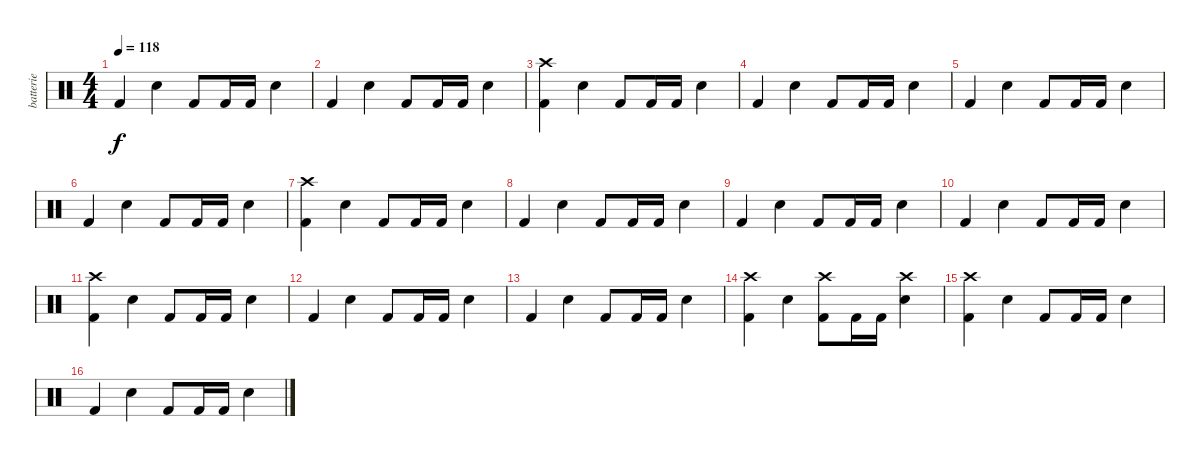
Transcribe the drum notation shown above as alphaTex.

\track ("batterie" "batterie") {instrument percussion}
\staff {score}
\articulation defaults
\ts (4 4)
\tempo 118
\clef neutral
\ks c "Kick (hit) 2".4{dy f} "Electric Snare (hit)".4 "Kick (hit) 2".8 "Kick (hit) 2".16 "Kick (hit) 2".16 "Electric Snare (hit)".4
|
"Kick (hit) 2".4 "Electric Snare (hit)".4 "Kick (hit) 2".8 "Kick (hit) 2".16 "Kick (hit) 2".16 "Electric Snare (hit)".4 |
("Crash high (hit)" "Kick (hit) 2").4 "Electric Snare (hit)".4 "Kick (hit) 2".8 "Kick (hit) 2".16 "Kick (hit) 2".16 "Electric Snare (hit)".4 |
"Kick (hit) 2".4 "Electric Snare (hit)".4 "Kick (hit) 2".8 "Kick (hit) 2".16 "Kick (hit) 2".16 "Electric Snare (hit)".4 |
"Kick (hit) 2".4 "Electric Snare (hit)".4 "Kick (hit) 2".8 "Kick (hit) 2".16 "Kick (hit) 2".16 "Electric Snare (hit)".4 |
"Kick (hit) 2".4 "Electric Snare (hit)".4 "Kick (hit) 2".8 "Kick (hit) 2".16 "Kick (hit) 2".16 "Electric Snare (hit)".4 |
("Crash high (hit)" "Kick (hit) 2").4 "Electric Snare (hit)".4 "Kick (hit) 2".8 "Kick (hit) 2".16 "Kick (hit) 2".16 "Electric Snare (hit)".4 |
"Kick (hit) 2".4 "Electric Snare (hit)".4 "Kick (hit) 2".8 "Kick (hit) 2".16 "Kick (hit) 2".16 "Electric Snare (hit)".4 |
"Kick (hit) 2".4 "Electric Snare (hit)".4 "Kick (hit) 2".8 "Kick (hit) 2".16 "Kick (hit) 2".16 "Electric Snare (hit)".4 |
"Kick (hit) 2".4 "Electric Snare (hit)".4 "Kick (hit) 2".8 "Kick (hit) 2".16 "Kick (hit) 2".16 "Electric Snare (hit)".4 |
("Crash high (hit)" "Kick (hit) 2").4 "Electric Snare (hit)".4 "Kick (hit) 2".8 "Kick (hit) 2".16 "Kick (hit) 2".16 "Electric Snare (hit)".4 |
"Kick (hit) 2".4 "Electric Snare (hit)".4 "Kick (hit) 2".8 "Kick (hit) 2".16 "Kick (hit) 2".16 "Electric Snare (hit)".4 |
"Kick (hit) 2".4 "Electric Snare (hit)".4 "Kick (hit) 2".8 "Kick (hit) 2".16 "Kick (hit) 2".16 "Electric Snare (hit)".4 |
("Crash high (hit)" "Kick (hit) 2").4 "Electric Snare (hit)".4 ("Crash high (hit)" "Kick (hit) 2").8 "Kick (hit) 2".16 "Kick (hit) 2".16 ("Crash high (hit)" "Electric Snare (hit)").4 |
("Crash high (hit)" "Kick (hit) 2").4 "Electric Snare (hit)".4 "Kick (hit) 2".8 "Kick (hit) 2".16 "Kick (hit) 2".16 "Electric Snare (hit)".4 |
"Kick (hit) 2".4 "Electric Snare (hit)".4 "Kick (hit) 2".8 "Kick (hit) 2".16 "Kick (hit) 2".16 "Electric Snare (hit)".4
